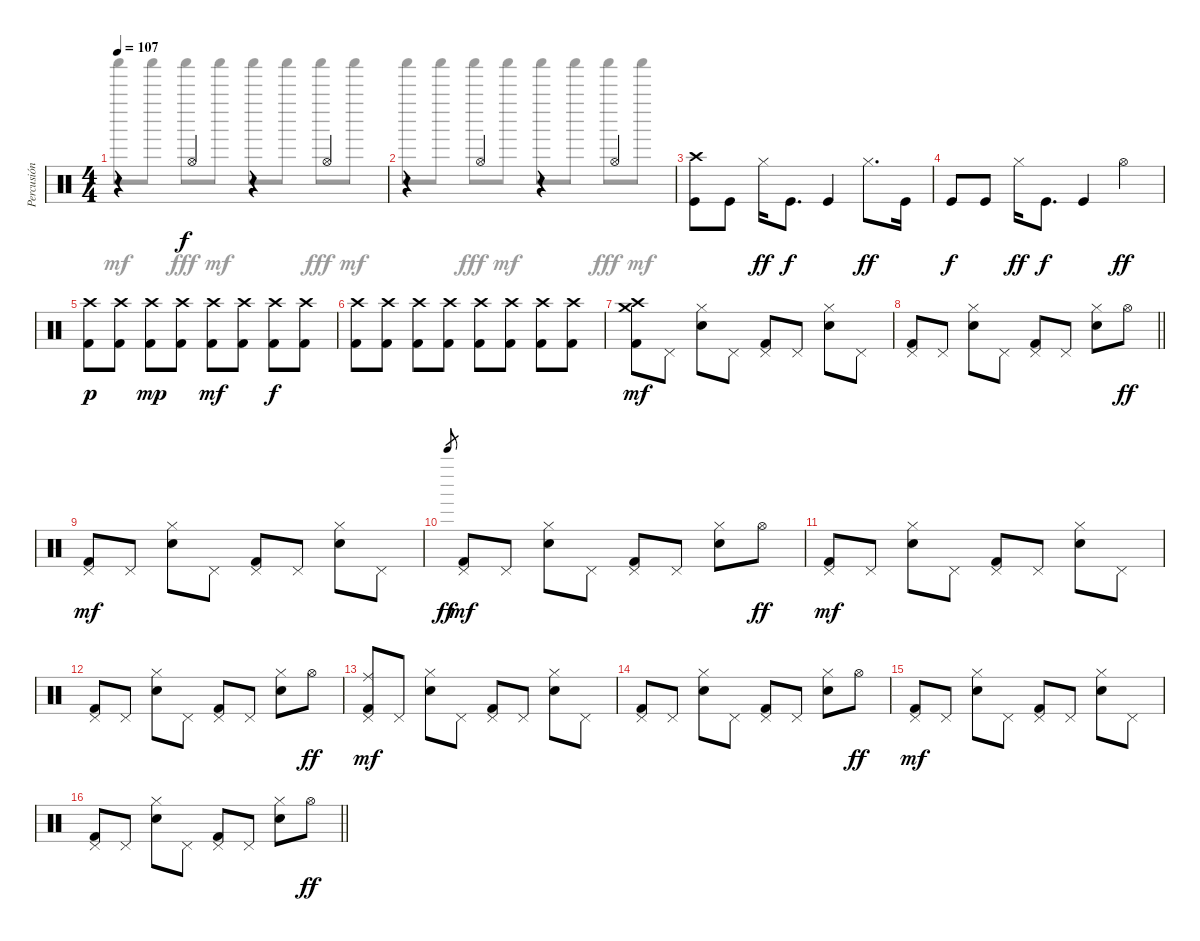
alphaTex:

\track ("Percusión" "Percusión") {instrument percussion}
\staff {score}
\articulation defaults
\voice
\ts (4 4)
\tempo 107
\clef neutral
\ks c
r.4{dy f} "Hi-Hat (open)".4 r.4 "Hi-Hat (open)".4 |
r.4 "Hi-Hat (open)".4 r.4 "Hi-Hat (open)".4 |
("Crash high (hit)" "Kick (hit)").8 "Kick (hit)".8 "Hi-Hat (closed)".16{dy ff} "Kick (hit)".8{d dy f} "Kick (hit)".4 "Hi-Hat (closed)".8{d dy ff} "Kick (hit)".16 |
"Kick (hit)".8{dy f} "Kick (hit)".8 "Hi-Hat (closed)".16{dy ff} "Kick (hit)".8{d dy f} "Kick (hit)".4 "Hi-Hat (open)".4{dy ff} |
("Crash high (hit)" "Kick (hit) 2").8{dy p} ("Crash high (hit)" "Kick (hit) 2").8 ("Crash high (hit)" "Kick (hit) 2").8{dy mp} ("Crash high (hit)" "Kick (hit) 2").8 ("Crash high (hit)" "Kick (hit) 2").8{dy mf} ("Crash high (hit)" "Kick (hit) 2").8 ("Crash high (hit)" "Kick (hit) 2").8{dy f} ("Crash high (hit)" "Kick (hit) 2").8 |
("Crash high (hit)" "Kick (hit) 2").8 ("Crash high (hit)" "Kick (hit) 2").8 ("Crash high (hit)" "Kick (hit) 2").8 ("Crash high (hit)" "Kick (hit) 2").8 ("Crash high (hit)" "Kick (hit) 2").8 ("Crash high (hit)" "Kick (hit) 2").8 ("Crash high (hit)" "Kick (hit) 2").8 ("Crash high (hit)" "Kick (hit) 2").8 |
("Crash medium (hit)" "Crash high (hit)" "Kick (hit) 2").8{dy mf} "Pedal Hi-Hat (hit)".8 ("Hi-Hat (closed)" "Snare (hit) 2").8 "Pedal Hi-Hat (hit)".8 ("Pedal Hi-Hat (hit)" "Kick (hit) 2").8 "Pedal Hi-Hat (hit)".8 ("Hi-Hat (closed)" "Snare (hit) 2").8 "Pedal Hi-Hat (hit)".8 |
\barLineRight lightlight
("Pedal Hi-Hat (hit)" "Kick (hit) 2").8 "Pedal Hi-Hat (hit)".8 ("Hi-Hat (closed)" "Snare (hit) 2").8 "Pedal Hi-Hat (hit)".8 ("Pedal Hi-Hat (hit)" "Kick (hit) 2").8 "Pedal Hi-Hat (hit)".8 ("Hi-Hat (closed)" "Snare (hit) 2").8 "Hi-Hat (open)".8{dy ff} |
("Pedal Hi-Hat (hit)" "Kick (hit) 2").8{dy mf} "Pedal Hi-Hat (hit)".8 ("Hi-Hat (closed)" "Snare (hit) 2").8 "Pedal Hi-Hat (hit)".8 ("Pedal Hi-Hat (hit)" "Kick (hit) 2").8 "Pedal Hi-Hat (hit)".8 ("Hi-Hat (closed)" "Snare (hit) 2").8 "Pedal Hi-Hat (hit)".8 |
"Bell Tree (hit)".8{gr dy ff} ("Pedal Hi-Hat (hit)" "Kick (hit) 2").8{dy mf} "Pedal Hi-Hat (hit)".8 ("Hi-Hat (closed)" "Snare (hit) 2").8 "Pedal Hi-Hat (hit)".8 ("Pedal Hi-Hat (hit)" "Kick (hit) 2").8 "Pedal Hi-Hat (hit)".8 ("Hi-Hat (closed)" "Snare (hit) 2").8 "Hi-Hat (open)".8{dy ff} |
("Pedal Hi-Hat (hit)" "Kick (hit) 2").8{dy mf} "Pedal Hi-Hat (hit)".8 ("Hi-Hat (closed)" "Snare (hit) 2").8 "Pedal Hi-Hat (hit)".8 ("Pedal Hi-Hat (hit)" "Kick (hit) 2").8 "Pedal Hi-Hat (hit)".8 ("Hi-Hat (closed)" "Snare (hit) 2").8 "Pedal Hi-Hat (hit)".8 |
("Pedal Hi-Hat (hit)" "Kick (hit) 2").8 "Pedal Hi-Hat (hit)".8 ("Hi-Hat (closed)" "Snare (hit) 2").8 "Pedal Hi-Hat (hit)".8 ("Pedal Hi-Hat (hit)" "Kick (hit) 2").8 "Pedal Hi-Hat (hit)".8 ("Hi-Hat (closed)" "Snare (hit) 2").8 "Hi-Hat (open)".8{dy ff} |
("Ride (middle)" "Pedal Hi-Hat (hit)" "Kick (hit) 2").8{dy mf} "Pedal Hi-Hat (hit)".8 ("Hi-Hat (closed)" "Snare (hit) 2").8 "Pedal Hi-Hat (hit)".8 ("Pedal Hi-Hat (hit)" "Kick (hit) 2").8 "Pedal Hi-Hat (hit)".8 ("Hi-Hat (closed)" "Snare (hit) 2").8 "Pedal Hi-Hat (hit)".8 |
("Pedal Hi-Hat (hit)" "Kick (hit) 2").8 "Pedal Hi-Hat (hit)".8 ("Hi-Hat (closed)" "Snare (hit) 2").8 "Pedal Hi-Hat (hit)".8 ("Pedal Hi-Hat (hit)" "Kick (hit) 2").8 "Pedal Hi-Hat (hit)".8 ("Hi-Hat (closed)" "Snare (hit) 2").8 "Hi-Hat (open)".8{dy ff} |
("Pedal Hi-Hat (hit)" "Kick (hit) 2").8{dy mf} "Pedal Hi-Hat (hit)".8 ("Hi-Hat (closed)" "Snare (hit) 2").8 "Pedal Hi-Hat (hit)".8 ("Pedal Hi-Hat (hit)" "Kick (hit) 2").8 "Pedal Hi-Hat (hit)".8 ("Hi-Hat (closed)" "Snare (hit) 2").8 "Pedal Hi-Hat (hit)".8 |
\barLineRight lightlight
("Pedal Hi-Hat (hit)" "Kick (hit) 2").8 "Pedal Hi-Hat (hit)".8 ("Hi-Hat (closed)" "Snare (hit) 2").8 "Pedal Hi-Hat (hit)".8 ("Pedal Hi-Hat (hit)" "Kick (hit) 2").8 "Pedal Hi-Hat (hit)".8 ("Hi-Hat (closed)" "Snare (hit) 2").8 "Hi-Hat (open)".8{dy ff}
\voice
\clef neutral
\ottava regular
\simile none
\ks c "Shaker (hit)".8{dy mf} "Shaker (hit)".8 "Shaker (hit)".8{dy fff} "Shaker (hit)".8{dy mf} "Shaker (hit)".8 "Shaker (hit)".8 "Shaker (hit)".8{dy fff} "Shaker (hit)".8{dy mf}
|
"Shaker (hit)".8 "Shaker (hit)".8 "Shaker (hit)".8{dy fff} "Shaker (hit)".8{dy mf} "Shaker (hit)".8 "Shaker (hit)".8 "Shaker (hit)".8{dy fff} "Shaker (hit)".8{dy mf} |
|
|
|
|
|
\barLineRight lightlight
|
|
|
|
|
|
|
|
\barLineRight lightlight
